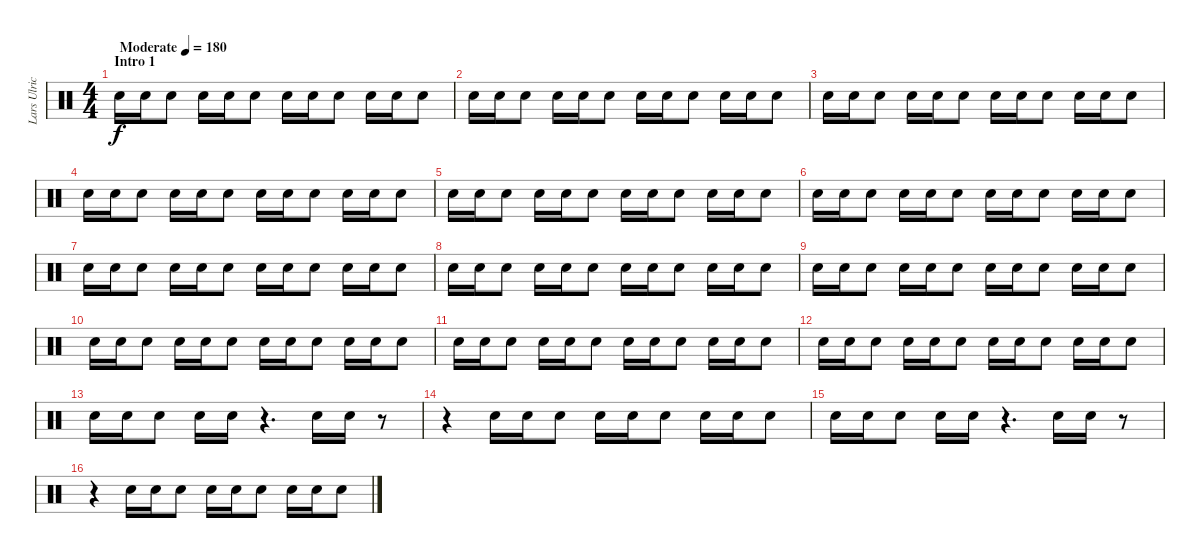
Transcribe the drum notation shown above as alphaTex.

\track ("Lars Ulrich" "Lars Ulric") {instrument percussion}
\staff {score}
\articulation defaults
\ts (4 4)
\section ("" "Intro 1")
\tempo (180 "Moderate")
\clef neutral
\ks c "Snare (hit) 2".16{dy f} "Snare (hit) 2".16 "Snare (hit) 2".8 "Snare (hit) 2".16 "Snare (hit) 2".16 "Snare (hit) 2".8 "Snare (hit) 2".16 "Snare (hit) 2".16 "Snare (hit) 2".8 "Snare (hit) 2".16 "Snare (hit) 2".16 "Snare (hit) 2".8
|
"Snare (hit) 2".16 "Snare (hit) 2".16 "Snare (hit) 2".8 "Snare (hit) 2".16 "Snare (hit) 2".16 "Snare (hit) 2".8 "Snare (hit) 2".16 "Snare (hit) 2".16 "Snare (hit) 2".8 "Snare (hit) 2".16 "Snare (hit) 2".16 "Snare (hit) 2".8 |
"Snare (hit) 2".16 "Snare (hit) 2".16 "Snare (hit) 2".8 "Snare (hit) 2".16 "Snare (hit) 2".16 "Snare (hit) 2".8 "Snare (hit) 2".16 "Snare (hit) 2".16 "Snare (hit) 2".8 "Snare (hit) 2".16 "Snare (hit) 2".16 "Snare (hit) 2".8 |
"Snare (hit) 2".16 "Snare (hit) 2".16 "Snare (hit) 2".8 "Snare (hit) 2".16 "Snare (hit) 2".16 "Snare (hit) 2".8 "Snare (hit) 2".16 "Snare (hit) 2".16 "Snare (hit) 2".8 "Snare (hit) 2".16 "Snare (hit) 2".16 "Snare (hit) 2".8 |
"Snare (hit) 2".16 "Snare (hit) 2".16 "Snare (hit) 2".8 "Snare (hit) 2".16 "Snare (hit) 2".16 "Snare (hit) 2".8 "Snare (hit) 2".16 "Snare (hit) 2".16 "Snare (hit) 2".8 "Snare (hit) 2".16 "Snare (hit) 2".16 "Snare (hit) 2".8 |
"Snare (hit) 2".16 "Snare (hit) 2".16 "Snare (hit) 2".8 "Snare (hit) 2".16 "Snare (hit) 2".16 "Snare (hit) 2".8 "Snare (hit) 2".16 "Snare (hit) 2".16 "Snare (hit) 2".8 "Snare (hit) 2".16 "Snare (hit) 2".16 "Snare (hit) 2".8 |
"Snare (hit) 2".16 "Snare (hit) 2".16 "Snare (hit) 2".8 "Snare (hit) 2".16 "Snare (hit) 2".16 "Snare (hit) 2".8 "Snare (hit) 2".16 "Snare (hit) 2".16 "Snare (hit) 2".8 "Snare (hit) 2".16 "Snare (hit) 2".16 "Snare (hit) 2".8 |
"Snare (hit) 2".16 "Snare (hit) 2".16 "Snare (hit) 2".8 "Snare (hit) 2".16 "Snare (hit) 2".16 "Snare (hit) 2".8 "Snare (hit) 2".16 "Snare (hit) 2".16 "Snare (hit) 2".8 "Snare (hit) 2".16 "Snare (hit) 2".16 "Snare (hit) 2".8 |
"Snare (hit) 2".16 "Snare (hit) 2".16 "Snare (hit) 2".8 "Snare (hit) 2".16 "Snare (hit) 2".16 "Snare (hit) 2".8 "Snare (hit) 2".16 "Snare (hit) 2".16 "Snare (hit) 2".8 "Snare (hit) 2".16 "Snare (hit) 2".16 "Snare (hit) 2".8 |
"Snare (hit) 2".16 "Snare (hit) 2".16 "Snare (hit) 2".8 "Snare (hit) 2".16 "Snare (hit) 2".16 "Snare (hit) 2".8 "Snare (hit) 2".16 "Snare (hit) 2".16 "Snare (hit) 2".8 "Snare (hit) 2".16 "Snare (hit) 2".16 "Snare (hit) 2".8 |
"Snare (hit) 2".16 "Snare (hit) 2".16 "Snare (hit) 2".8 "Snare (hit) 2".16 "Snare (hit) 2".16 "Snare (hit) 2".8 "Snare (hit) 2".16 "Snare (hit) 2".16 "Snare (hit) 2".8 "Snare (hit) 2".16 "Snare (hit) 2".16 "Snare (hit) 2".8 |
"Snare (hit) 2".16 "Snare (hit) 2".16 "Snare (hit) 2".8 "Snare (hit) 2".16 "Snare (hit) 2".16 "Snare (hit) 2".8 "Snare (hit) 2".16 "Snare (hit) 2".16 "Snare (hit) 2".8 "Snare (hit) 2".16 "Snare (hit) 2".16 "Snare (hit) 2".8 |
"Snare (hit) 2".16 "Snare (hit) 2".16 "Snare (hit) 2".8 "Snare (hit) 2".16 "Snare (hit) 2".16 r.4{d} "Snare (hit) 2".16 "Snare (hit) 2".16 r.8 |
r.4 "Snare (hit) 2".16 "Snare (hit) 2".16 "Snare (hit) 2".8 "Snare (hit) 2".16 "Snare (hit) 2".16 "Snare (hit) 2".8 "Snare (hit) 2".16 "Snare (hit) 2".16 "Snare (hit) 2".8 |
"Snare (hit) 2".16 "Snare (hit) 2".16 "Snare (hit) 2".8 "Snare (hit) 2".16 "Snare (hit) 2".16 r.4{d} "Snare (hit) 2".16 "Snare (hit) 2".16 r.8 |
r.4 "Snare (hit) 2".16 "Snare (hit) 2".16 "Snare (hit) 2".8 "Snare (hit) 2".16 "Snare (hit) 2".16 "Snare (hit) 2".8 "Snare (hit) 2".16 "Snare (hit) 2".16 "Snare (hit) 2".8
